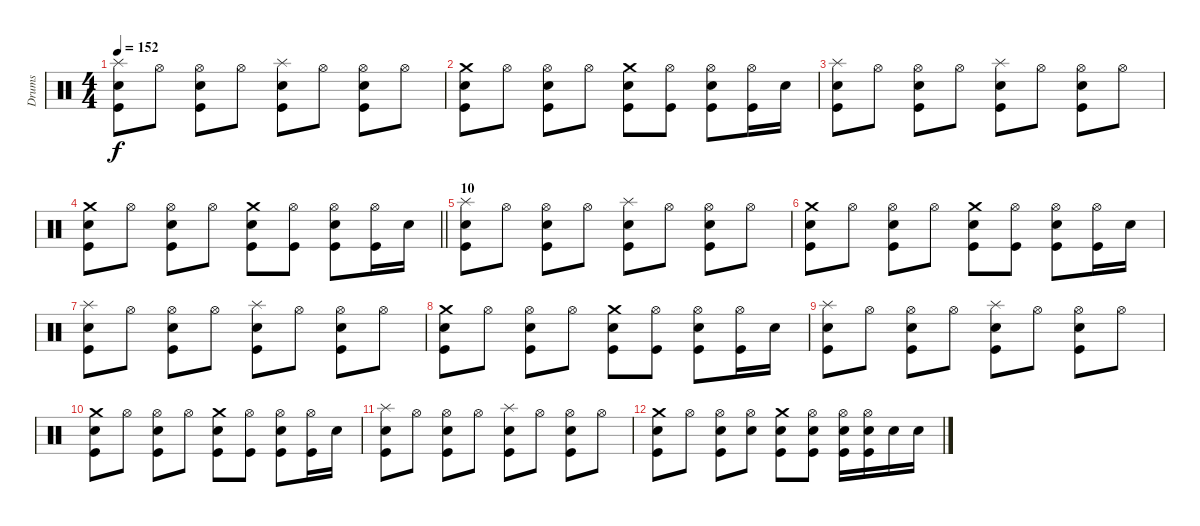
\track ("Drums" "Drums") {instrument percussion}
\staff {score}
\articulation defaults
\ts (4 4)
\tempo 152
\clef neutral
\ks c
("Splash (hit)" "Electric Snare (hit)" "Kick (hit)").8{dy f} "Hi-Hat (open)".8 ("Hi-Hat (open)" "Electric Snare (hit)" "Kick (hit)").8 "Hi-Hat (open)".8 ("Splash (hit)" "Electric Snare (hit)" "Kick (hit)").8 "Hi-Hat (open)".8 ("Hi-Hat (open)" "Electric Snare (hit)" "Kick (hit)").8 "Hi-Hat (open)".8 |
("Crash medium (hit)" "Electric Snare (hit)" "Kick (hit)").8 "Hi-Hat (open)".8 ("Hi-Hat (open)" "Electric Snare (hit)" "Kick (hit)").8 "Hi-Hat (open)".8 ("Crash medium (hit)" "Electric Snare (hit)" "Kick (hit)").8 ("Hi-Hat (open)" "Kick (hit)").8 ("Hi-Hat (open)" "Electric Snare (hit)" "Kick (hit)").8 ("Hi-Hat (open)" "Kick (hit)").16 "Electric Snare (hit)".16 |
("Splash (hit)" "Electric Snare (hit)" "Kick (hit)").8 "Hi-Hat (open)".8 ("Hi-Hat (open)" "Electric Snare (hit)" "Kick (hit)").8 "Hi-Hat (open)".8 ("Splash (hit)" "Electric Snare (hit)" "Kick (hit)").8 "Hi-Hat (open)".8 ("Hi-Hat (open)" "Electric Snare (hit)" "Kick (hit)").8 "Hi-Hat (open)".8 |
\barLineRight lightlight
("Crash medium (hit)" "Electric Snare (hit)" "Kick (hit)").8 "Hi-Hat (open)".8 ("Hi-Hat (open)" "Electric Snare (hit)" "Kick (hit)").8 "Hi-Hat (open)".8 ("Crash medium (hit)" "Electric Snare (hit)" "Kick (hit)").8 ("Hi-Hat (open)" "Kick (hit)").8 ("Hi-Hat (open)" "Electric Snare (hit)" "Kick (hit)").8 ("Hi-Hat (open)" "Kick (hit)").16 "Electric Snare (hit)".16 |
\section ("" "10")
("Splash (hit)" "Electric Snare (hit)" "Kick (hit)").8 "Hi-Hat (open)".8 ("Hi-Hat (open)" "Electric Snare (hit)" "Kick (hit)").8 "Hi-Hat (open)".8 ("Splash (hit)" "Electric Snare (hit)" "Kick (hit)").8 "Hi-Hat (open)".8 ("Hi-Hat (open)" "Electric Snare (hit)" "Kick (hit)").8 "Hi-Hat (open)".8 |
("Crash medium (hit)" "Electric Snare (hit)" "Kick (hit)").8 "Hi-Hat (open)".8 ("Hi-Hat (open)" "Electric Snare (hit)" "Kick (hit)").8 "Hi-Hat (open)".8 ("Crash medium (hit)" "Electric Snare (hit)" "Kick (hit)").8 ("Hi-Hat (open)" "Kick (hit)").8 ("Hi-Hat (open)" "Electric Snare (hit)" "Kick (hit)").8 ("Hi-Hat (open)" "Kick (hit)").16 "Electric Snare (hit)".16 |
("Splash (hit)" "Electric Snare (hit)" "Kick (hit)").8 "Hi-Hat (open)".8 ("Hi-Hat (open)" "Electric Snare (hit)" "Kick (hit)").8 "Hi-Hat (open)".8 ("Splash (hit)" "Electric Snare (hit)" "Kick (hit)").8 "Hi-Hat (open)".8 ("Hi-Hat (open)" "Electric Snare (hit)" "Kick (hit)").8 "Hi-Hat (open)".8 |
("Crash medium (hit)" "Electric Snare (hit)" "Kick (hit)").8 "Hi-Hat (open)".8 ("Hi-Hat (open)" "Electric Snare (hit)" "Kick (hit)").8 "Hi-Hat (open)".8 ("Crash medium (hit)" "Electric Snare (hit)" "Kick (hit)").8 ("Hi-Hat (open)" "Kick (hit)").8 ("Hi-Hat (open)" "Electric Snare (hit)" "Kick (hit)").8 ("Hi-Hat (open)" "Kick (hit)").16 "Electric Snare (hit)".16 |
("Splash (hit)" "Electric Snare (hit)" "Kick (hit)").8 "Hi-Hat (open)".8 ("Hi-Hat (open)" "Electric Snare (hit)" "Kick (hit)").8 "Hi-Hat (open)".8 ("Splash (hit)" "Electric Snare (hit)" "Kick (hit)").8 "Hi-Hat (open)".8 ("Hi-Hat (open)" "Electric Snare (hit)" "Kick (hit)").8 "Hi-Hat (open)".8 |
("Crash medium (hit)" "Electric Snare (hit)" "Kick (hit)").8 "Hi-Hat (open)".8 ("Hi-Hat (open)" "Electric Snare (hit)" "Kick (hit)").8 "Hi-Hat (open)".8 ("Crash medium (hit)" "Electric Snare (hit)" "Kick (hit)").8 ("Hi-Hat (open)" "Kick (hit)").8 ("Hi-Hat (open)" "Electric Snare (hit)" "Kick (hit)").8 ("Hi-Hat (open)" "Kick (hit)").16 "Electric Snare (hit)".16 |
("Splash (hit)" "Electric Snare (hit)" "Kick (hit)").8 "Hi-Hat (open)".8 ("Hi-Hat (open)" "Electric Snare (hit)" "Kick (hit)").8 "Hi-Hat (open)".8 ("Splash (hit)" "Electric Snare (hit)" "Kick (hit)").8 "Hi-Hat (open)".8 ("Hi-Hat (open)" "Electric Snare (hit)" "Kick (hit)").8 "Hi-Hat (open)".8 |
("Crash medium (hit)" "Electric Snare (hit)" "Kick (hit)").8 "Hi-Hat (open)".8 ("Hi-Hat (open)" "Electric Snare (hit)" "Kick (hit)").8 ("Hi-Hat (open)" "Electric Snare (hit)").8 ("Crash medium (hit)" "Electric Snare (hit)" "Kick (hit)").8 ("Hi-Hat (open)" "Electric Snare (hit)" "Kick (hit)").8 ("Hi-Hat (open)" "Electric Snare (hit)" "Kick (hit)").16 ("Hi-Hat (open)" "Electric Snare (hit)" "Kick (hit)").16 "Electric Snare (hit)".16 "Electric Snare (hit)".16
